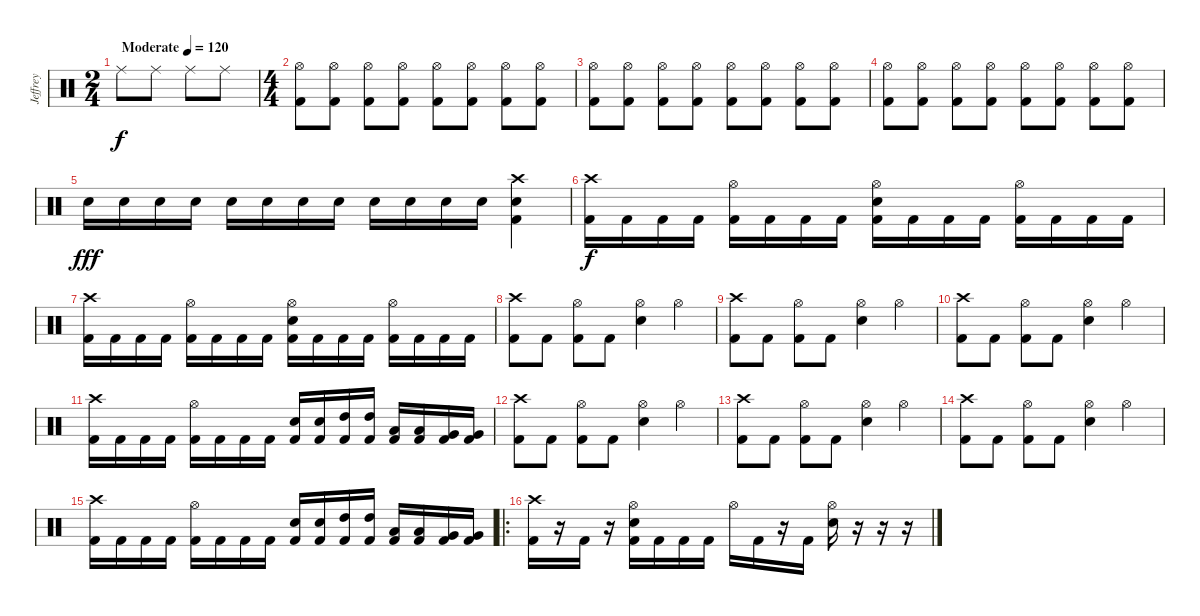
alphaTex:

\track ("Jeffrey" "Jeffrey") {instrument percussion}
\staff {score}
\articulation defaults
\ts (2 4)
\tempo (120 "Moderate")
\clef neutral
\ks c "Ride (middle)".8{dy f} "Ride (middle)".8 "Ride (middle)".8 "Ride (middle)".8
|
\ts (4 4)
("Hi-Hat (open)" "Kick (hit) 2").8 ("Hi-Hat (open)" "Kick (hit) 2").8 ("Hi-Hat (open)" "Kick (hit) 2").8 ("Hi-Hat (open)" "Kick (hit) 2").8 ("Hi-Hat (open)" "Kick (hit) 2").8 ("Hi-Hat (open)" "Kick (hit) 2").8 ("Hi-Hat (open)" "Kick (hit) 2").8 ("Hi-Hat (open)" "Kick (hit) 2").8 |
("Hi-Hat (open)" "Kick (hit) 2").8 ("Hi-Hat (open)" "Kick (hit) 2").8 ("Hi-Hat (open)" "Kick (hit) 2").8 ("Hi-Hat (open)" "Kick (hit) 2").8 ("Hi-Hat (open)" "Kick (hit) 2").8 ("Hi-Hat (open)" "Kick (hit) 2").8 ("Hi-Hat (open)" "Kick (hit) 2").8 ("Hi-Hat (open)" "Kick (hit) 2").8 |
("Hi-Hat (open)" "Kick (hit) 2").8 ("Hi-Hat (open)" "Kick (hit) 2").8 ("Hi-Hat (open)" "Kick (hit) 2").8 ("Hi-Hat (open)" "Kick (hit) 2").8 ("Hi-Hat (open)" "Kick (hit) 2").8 ("Hi-Hat (open)" "Kick (hit) 2").8 ("Hi-Hat (open)" "Kick (hit) 2").8 ("Hi-Hat (open)" "Kick (hit) 2").8 |
"Electric Snare (hit)".16{dy fff} "Electric Snare (hit)".16 "Electric Snare (hit)".16 "Electric Snare (hit)".16 "Electric Snare (hit)".16 "Electric Snare (hit)".16 "Electric Snare (hit)".16 "Electric Snare (hit)".16 "Electric Snare (hit)".16 "Electric Snare (hit)".16 "Electric Snare (hit)".16 "Electric Snare (hit)".16 ("Crash high (hit)" "Electric Snare (hit)" "Kick (hit) 2").4 |
("Crash high (hit)" "Kick (hit) 2").16{dy f} "Kick (hit) 2".16 "Kick (hit) 2".16 "Kick (hit) 2".16 ("Hi-Hat (open)" "Kick (hit) 2").16 "Kick (hit) 2".16 "Kick (hit) 2".16 "Kick (hit) 2".16 ("Hi-Hat (open)" "Electric Snare (hit)" "Kick (hit) 2").16 "Kick (hit) 2".16 "Kick (hit) 2".16 "Kick (hit) 2".16 ("Hi-Hat (open)" "Kick (hit) 2").16 "Kick (hit) 2".16 "Kick (hit) 2".16 "Kick (hit) 2".16 |
("Crash high (hit)" "Kick (hit) 2").16 "Kick (hit) 2".16 "Kick (hit) 2".16 "Kick (hit) 2".16 ("Hi-Hat (open)" "Kick (hit) 2").16 "Kick (hit) 2".16 "Kick (hit) 2".16 "Kick (hit) 2".16 ("Hi-Hat (open)" "Electric Snare (hit)" "Kick (hit) 2").16 "Kick (hit) 2".16 "Kick (hit) 2".16 "Kick (hit) 2".16 ("Hi-Hat (open)" "Kick (hit) 2").16 "Kick (hit) 2".16 "Kick (hit) 2".16 "Kick (hit) 2".16 |
("Crash high (hit)" "Kick (hit) 2").8 "Kick (hit) 2".8 ("Hi-Hat (open)" "Kick (hit) 2").8 "Kick (hit) 2".8 ("Hi-Hat (open)" "Electric Snare (hit)").4 "Hi-Hat (open)".4 |
("Crash high (hit)" "Kick (hit) 2").8 "Kick (hit) 2".8 ("Hi-Hat (open)" "Kick (hit) 2").8 "Kick (hit) 2".8 ("Hi-Hat (open)" "Electric Snare (hit)").4 "Hi-Hat (open)".4 |
("Crash high (hit)" "Kick (hit) 2").8 "Kick (hit) 2".8 ("Hi-Hat (open)" "Kick (hit) 2").8 "Kick (hit) 2".8 ("Hi-Hat (open)" "Electric Snare (hit)").4 "Hi-Hat (open)".4 |
("Crash high (hit)" "Kick (hit) 2").16 "Kick (hit) 2".16 "Kick (hit) 2".16 "Kick (hit) 2".16 ("Hi-Hat (open)" "Kick (hit) 2").16 "Kick (hit) 2".16 "Kick (hit) 2".16 "Kick (hit) 2".16 ("Electric Snare (hit)" "Kick (hit) 2").16 ("Electric Snare (hit)" "Kick (hit) 2").16 ("High Tom (hit)" "Kick (hit) 2").16 ("High Tom (hit)" "Kick (hit) 2").16 ("Low Tom (hit)" "Kick (hit) 2").16 ("Low Tom (hit)" "Kick (hit) 2").16 ("Very Low Tom (hit)" "Kick (hit) 2").16 ("Very Low Tom (hit)" "Kick (hit) 2").16 |
("Crash high (hit)" "Kick (hit) 2").8 "Kick (hit) 2".8 ("Hi-Hat (open)" "Kick (hit) 2").8 "Kick (hit) 2".8 ("Hi-Hat (open)" "Electric Snare (hit)").4 "Hi-Hat (open)".4 |
("Crash high (hit)" "Kick (hit) 2").8 "Kick (hit) 2".8 ("Hi-Hat (open)" "Kick (hit) 2").8 "Kick (hit) 2".8 ("Hi-Hat (open)" "Electric Snare (hit)").4 "Hi-Hat (open)".4 |
("Crash high (hit)" "Kick (hit) 2").8 "Kick (hit) 2".8 ("Hi-Hat (open)" "Kick (hit) 2").8 "Kick (hit) 2".8 ("Hi-Hat (open)" "Electric Snare (hit)").4 "Hi-Hat (open)".4 |
("Crash high (hit)" "Kick (hit) 2").16 "Kick (hit) 2".16 "Kick (hit) 2".16 "Kick (hit) 2".16 ("Hi-Hat (open)" "Kick (hit) 2").16 "Kick (hit) 2".16 "Kick (hit) 2".16 "Kick (hit) 2".16 ("Electric Snare (hit)" "Kick (hit) 2").16 ("Electric Snare (hit)" "Kick (hit) 2").16 ("High Tom (hit)" "Kick (hit) 2").16 ("High Tom (hit)" "Kick (hit) 2").16 ("Low Tom (hit)" "Kick (hit) 2").16 ("Low Tom (hit)" "Kick (hit) 2").16 ("Very Low Tom (hit)" "Kick (hit) 2").16 ("Very Low Tom (hit)" "Kick (hit) 2").16 |
\ro
("Crash high (hit)" "Kick (hit) 2").16 r.16 "Kick (hit) 2".16 r.16 ("Hi-Hat (open)" "Electric Snare (hit)" "Kick (hit) 2").16 "Kick (hit) 2".16 "Kick (hit) 2".16 "Kick (hit) 2".16 "Hi-Hat (open)".16 "Kick (hit) 2".16 r.16 "Kick (hit) 2".16 ("Hi-Hat (open)" "Electric Snare (hit)").16 r.16 r.16 r.16
